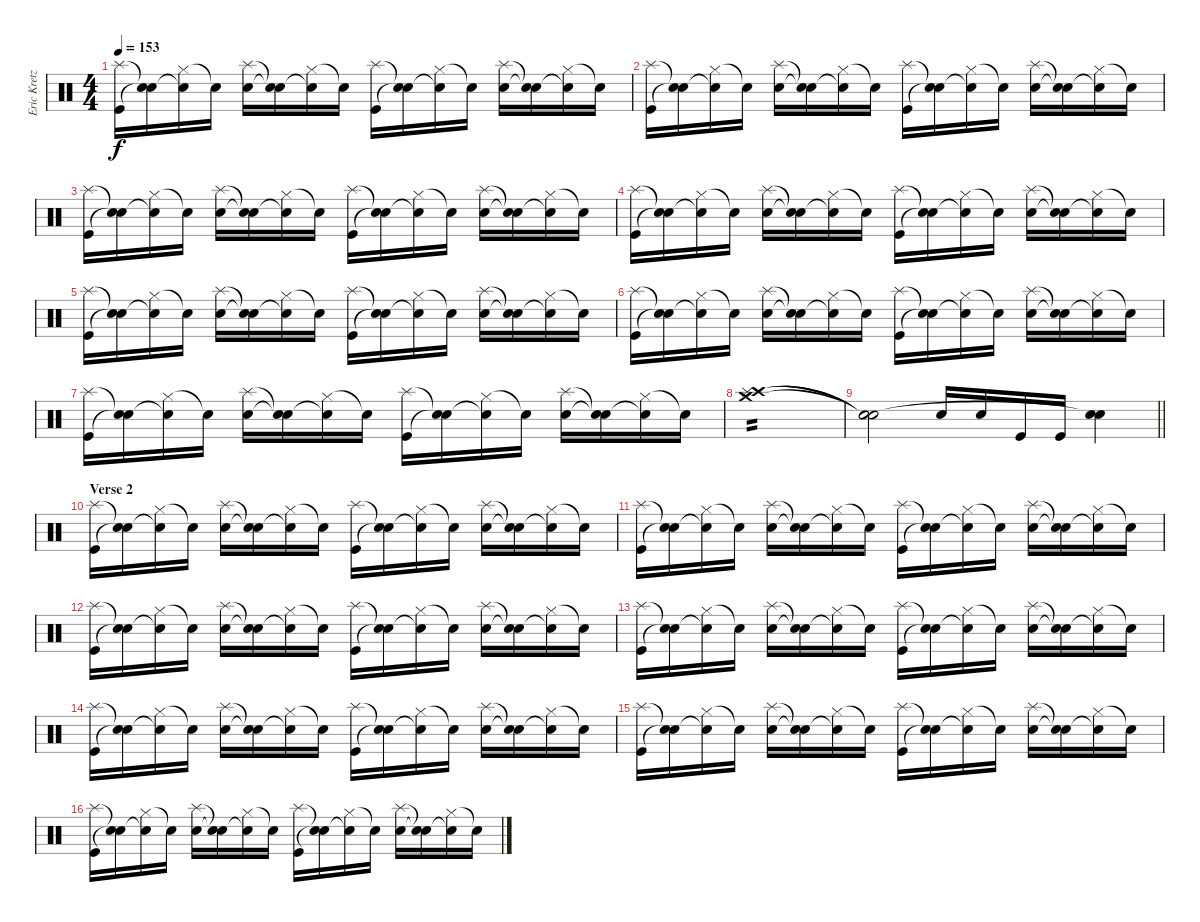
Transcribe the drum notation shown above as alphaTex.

\track ("Eric Kretz - Drums" "Eric Kretz") {instrument percussion}
\staff {score}
\articulation defaults
\ts (4 4)
\tempo 153
\clef neutral
\ks c
("Kick (hit)" "Splash (hit)").16{dy f} ("Snare (hit)"{t} "Snare (hit)"{t}).16 ("Hi-Hat (closed)" "Snare (hit)"{t}).16 "Snare (hit)"{t}.16 ("Snare (hit) 2" "Splash (hit)").16 ("Snare (hit)"{t} "Snare (hit)"{t}).16 ("Hi-Hat (closed)" "Snare (hit)"{t}).16 "Snare (hit)"{t}.16 ("Kick (hit)" "Splash (hit)").16 ("Snare (hit)"{t} "Snare (hit)"{t}).16 ("Hi-Hat (closed)" "Snare (hit)"{t}).16 "Snare (hit)"{t}.16 ("Snare (hit) 2" "Splash (hit)").16 ("Snare (hit)"{t} "Snare (hit)"{t}).16 ("Hi-Hat (closed)" "Snare (hit)"{t}).16 "Snare (hit)"{t}.16 |
("Kick (hit)" "Splash (hit)").16 ("Snare (hit)"{t} "Snare (hit)"{t}).16 ("Hi-Hat (closed)" "Snare (hit)"{t}).16 "Snare (hit)"{t}.16 ("Snare (hit) 2" "Splash (hit)").16 ("Snare (hit)"{t} "Snare (hit)"{t}).16 ("Hi-Hat (closed)" "Snare (hit)"{t}).16 "Snare (hit)"{t}.16 ("Kick (hit)" "Splash (hit)").16 ("Snare (hit)"{t} "Snare (hit)"{t}).16 ("Hi-Hat (closed)" "Snare (hit)"{t}).16 "Snare (hit)"{t}.16 ("Snare (hit) 2" "Splash (hit)").16 ("Snare (hit)"{t} "Snare (hit)"{t}).16 ("Hi-Hat (closed)" "Snare (hit)"{t}).16 "Snare (hit)"{t}.16 |
("Kick (hit)" "Splash (hit)").16 ("Snare (hit)"{t} "Snare (hit)"{t}).16 ("Hi-Hat (closed)" "Snare (hit)"{t}).16 "Snare (hit)"{t}.16 ("Snare (hit) 2" "Splash (hit)").16 ("Snare (hit)"{t} "Snare (hit)"{t}).16 ("Hi-Hat (closed)" "Snare (hit)"{t}).16 "Snare (hit)"{t}.16 ("Kick (hit)" "Splash (hit)").16 ("Snare (hit)"{t} "Snare (hit)"{t}).16 ("Hi-Hat (closed)" "Snare (hit)"{t}).16 "Snare (hit)"{t}.16 ("Snare (hit) 2" "Splash (hit)").16 ("Snare (hit)"{t} "Snare (hit)"{t}).16 ("Hi-Hat (closed)" "Snare (hit)"{t}).16 "Snare (hit)"{t}.16 |
("Kick (hit)" "Splash (hit)").16 ("Snare (hit)"{t} "Snare (hit)"{t}).16 ("Hi-Hat (closed)" "Snare (hit)"{t}).16 "Snare (hit)"{t}.16 ("Snare (hit) 2" "Splash (hit)").16 ("Snare (hit)"{t} "Snare (hit)"{t}).16 ("Hi-Hat (closed)" "Snare (hit)"{t}).16 "Snare (hit)"{t}.16 ("Kick (hit)" "Splash (hit)").16 ("Snare (hit)"{t} "Snare (hit)"{t}).16 ("Hi-Hat (closed)" "Snare (hit)"{t}).16 "Snare (hit)"{t}.16 ("Snare (hit) 2" "Splash (hit)").16 ("Snare (hit)"{t} "Snare (hit)"{t}).16 ("Hi-Hat (closed)" "Snare (hit)"{t}).16 "Snare (hit)"{t}.16 |
("Kick (hit)" "Splash (hit)").16 ("Snare (hit)"{t} "Snare (hit)"{t}).16 ("Hi-Hat (closed)" "Snare (hit)"{t}).16 "Snare (hit)"{t}.16 ("Snare (hit) 2" "Splash (hit)").16 ("Snare (hit)"{t} "Snare (hit)"{t}).16 ("Hi-Hat (closed)" "Snare (hit)"{t}).16 "Snare (hit)"{t}.16 ("Kick (hit)" "Splash (hit)").16 ("Snare (hit)"{t} "Snare (hit)"{t}).16 ("Hi-Hat (closed)" "Snare (hit)"{t}).16 "Snare (hit)"{t}.16 ("Snare (hit) 2" "Splash (hit)").16 ("Snare (hit)"{t} "Snare (hit)"{t}).16 ("Hi-Hat (closed)" "Snare (hit)"{t}).16 "Snare (hit)"{t}.16 |
("Kick (hit)" "Splash (hit)").16 ("Snare (hit)"{t} "Snare (hit)"{t}).16 ("Hi-Hat (closed)" "Snare (hit)"{t}).16 "Snare (hit)"{t}.16 ("Snare (hit) 2" "Splash (hit)").16 ("Snare (hit)"{t} "Snare (hit)"{t}).16 ("Hi-Hat (closed)" "Snare (hit)"{t}).16 "Snare (hit)"{t}.16 ("Kick (hit)" "Splash (hit)").16 ("Snare (hit)"{t} "Snare (hit)"{t}).16 ("Hi-Hat (closed)" "Snare (hit)"{t}).16 "Snare (hit)"{t}.16 ("Snare (hit) 2" "Splash (hit)").16 ("Snare (hit)"{t} "Snare (hit)"{t}).16 ("Hi-Hat (closed)" "Snare (hit)"{t}).16 "Snare (hit)"{t}.16 |
("Kick (hit)" "Splash (hit)").16 ("Snare (hit)"{t} "Snare (hit)"{t}).16 ("Hi-Hat (closed)" "Snare (hit)"{t}).16 "Snare (hit)"{t}.16 ("Snare (hit) 2" "Splash (hit)").16 ("Snare (hit)"{t} "Snare (hit)"{t}).16 ("Hi-Hat (closed)" "Snare (hit)"{t}).16 "Snare (hit)"{t}.16 ("Kick (hit)" "Splash (hit)").16 ("Snare (hit)"{t} "Snare (hit)"{t}).16 ("Hi-Hat (closed)" "Snare (hit)"{t}).16 "Snare (hit)"{t}.16 ("Snare (hit) 2" "Splash (hit)").16 ("Snare (hit)"{t} "Snare (hit)"{t}).16 ("Hi-Hat (closed)" "Snare (hit)"{t}).16 "Snare (hit)"{t}.16 |
("Crash high (hit)" "Crash medium (hit)" "Splash (hit)").1{tp 2} |
\barLineRight lightlight
("Snare (hit)"{t} "Snare (hit)"{t} "Snare (hit)"{t}).2 "Snare (hit) 2".16 "Snare (hit) 2".16 "Kick (hit)".16 "Kick (hit)".16 ("Snare (hit) 2" "Snare (hit)"{t}).4 |
\section ("" "Verse 2")
("Kick (hit)" "Splash (hit)").16 ("Snare (hit)"{t} "Snare (hit)"{t}).16 ("Hi-Hat (closed)" "Snare (hit)"{t}).16 "Snare (hit)"{t}.16 ("Snare (hit) 2" "Splash (hit)").16 ("Snare (hit)"{t} "Snare (hit)"{t}).16 ("Hi-Hat (closed)" "Snare (hit)"{t}).16 "Snare (hit)"{t}.16 ("Kick (hit)" "Splash (hit)").16 ("Snare (hit)"{t} "Snare (hit)"{t}).16 ("Hi-Hat (closed)" "Snare (hit)"{t}).16 "Snare (hit)"{t}.16 ("Snare (hit) 2" "Splash (hit)").16 ("Snare (hit)"{t} "Snare (hit)"{t}).16 ("Hi-Hat (closed)" "Snare (hit)"{t}).16 "Snare (hit)"{t}.16 |
("Kick (hit)" "Splash (hit)").16 ("Snare (hit)"{t} "Snare (hit)"{t}).16 ("Hi-Hat (closed)" "Snare (hit)"{t}).16 "Snare (hit)"{t}.16 ("Snare (hit) 2" "Splash (hit)").16 ("Snare (hit)"{t} "Snare (hit)"{t}).16 ("Hi-Hat (closed)" "Snare (hit)"{t}).16 "Snare (hit)"{t}.16 ("Kick (hit)" "Splash (hit)").16 ("Snare (hit)"{t} "Snare (hit)"{t}).16 ("Hi-Hat (closed)" "Snare (hit)"{t}).16 "Snare (hit)"{t}.16 ("Snare (hit) 2" "Splash (hit)").16 ("Snare (hit)"{t} "Snare (hit)"{t}).16 ("Hi-Hat (closed)" "Snare (hit)"{t}).16 "Snare (hit)"{t}.16 |
("Kick (hit)" "Splash (hit)").16 ("Snare (hit)"{t} "Snare (hit)"{t}).16 ("Hi-Hat (closed)" "Snare (hit)"{t}).16 "Snare (hit)"{t}.16 ("Snare (hit) 2" "Splash (hit)").16 ("Snare (hit)"{t} "Snare (hit)"{t}).16 ("Hi-Hat (closed)" "Snare (hit)"{t}).16 "Snare (hit)"{t}.16 ("Kick (hit)" "Splash (hit)").16 ("Snare (hit)"{t} "Snare (hit)"{t}).16 ("Hi-Hat (closed)" "Snare (hit)"{t}).16 "Snare (hit)"{t}.16 ("Snare (hit) 2" "Splash (hit)").16 ("Snare (hit)"{t} "Snare (hit)"{t}).16 ("Hi-Hat (closed)" "Snare (hit)"{t}).16 "Snare (hit)"{t}.16 |
("Kick (hit)" "Splash (hit)").16 ("Snare (hit)"{t} "Snare (hit)"{t}).16 ("Hi-Hat (closed)" "Snare (hit)"{t}).16 "Snare (hit)"{t}.16 ("Snare (hit) 2" "Splash (hit)").16 ("Snare (hit)"{t} "Snare (hit)"{t}).16 ("Hi-Hat (closed)" "Snare (hit)"{t}).16 "Snare (hit)"{t}.16 ("Kick (hit)" "Splash (hit)").16 ("Snare (hit)"{t} "Snare (hit)"{t}).16 ("Hi-Hat (closed)" "Snare (hit)"{t}).16 "Snare (hit)"{t}.16 ("Snare (hit) 2" "Splash (hit)").16 ("Snare (hit)"{t} "Snare (hit)"{t}).16 ("Hi-Hat (closed)" "Snare (hit)"{t}).16 "Snare (hit)"{t}.16 |
("Kick (hit)" "Splash (hit)").16 ("Snare (hit)"{t} "Snare (hit)"{t}).16 ("Hi-Hat (closed)" "Snare (hit)"{t}).16 "Snare (hit)"{t}.16 ("Snare (hit) 2" "Splash (hit)").16 ("Snare (hit)"{t} "Snare (hit)"{t}).16 ("Hi-Hat (closed)" "Snare (hit)"{t}).16 "Snare (hit)"{t}.16 ("Kick (hit)" "Splash (hit)").16 ("Snare (hit)"{t} "Snare (hit)"{t}).16 ("Hi-Hat (closed)" "Snare (hit)"{t}).16 "Snare (hit)"{t}.16 ("Snare (hit) 2" "Splash (hit)").16 ("Snare (hit)"{t} "Snare (hit)"{t}).16 ("Hi-Hat (closed)" "Snare (hit)"{t}).16 "Snare (hit)"{t}.16 |
("Kick (hit)" "Splash (hit)").16 ("Snare (hit)"{t} "Snare (hit)"{t}).16 ("Hi-Hat (closed)" "Snare (hit)"{t}).16 "Snare (hit)"{t}.16 ("Snare (hit) 2" "Splash (hit)").16 ("Snare (hit)"{t} "Snare (hit)"{t}).16 ("Hi-Hat (closed)" "Snare (hit)"{t}).16 "Snare (hit)"{t}.16 ("Kick (hit)" "Splash (hit)").16 ("Snare (hit)"{t} "Snare (hit)"{t}).16 ("Hi-Hat (closed)" "Snare (hit)"{t}).16 "Snare (hit)"{t}.16 ("Snare (hit) 2" "Splash (hit)").16 ("Snare (hit)"{t} "Snare (hit)"{t}).16 ("Hi-Hat (closed)" "Snare (hit)"{t}).16 "Snare (hit)"{t}.16 |
("Kick (hit)" "Splash (hit)").16 ("Snare (hit)"{t} "Snare (hit)"{t}).16 ("Hi-Hat (closed)" "Snare (hit)"{t}).16 "Snare (hit)"{t}.16 ("Snare (hit) 2" "Splash (hit)").16 ("Snare (hit)"{t} "Snare (hit)"{t}).16 ("Hi-Hat (closed)" "Snare (hit)"{t}).16 "Snare (hit)"{t}.16 ("Kick (hit)" "Splash (hit)").16 ("Snare (hit)"{t} "Snare (hit)"{t}).16 ("Hi-Hat (closed)" "Snare (hit)"{t}).16 "Snare (hit)"{t}.16 ("Snare (hit) 2" "Splash (hit)").16 ("Snare (hit)"{t} "Snare (hit)"{t}).16 ("Hi-Hat (closed)" "Snare (hit)"{t}).16 "Snare (hit)"{t}.16
